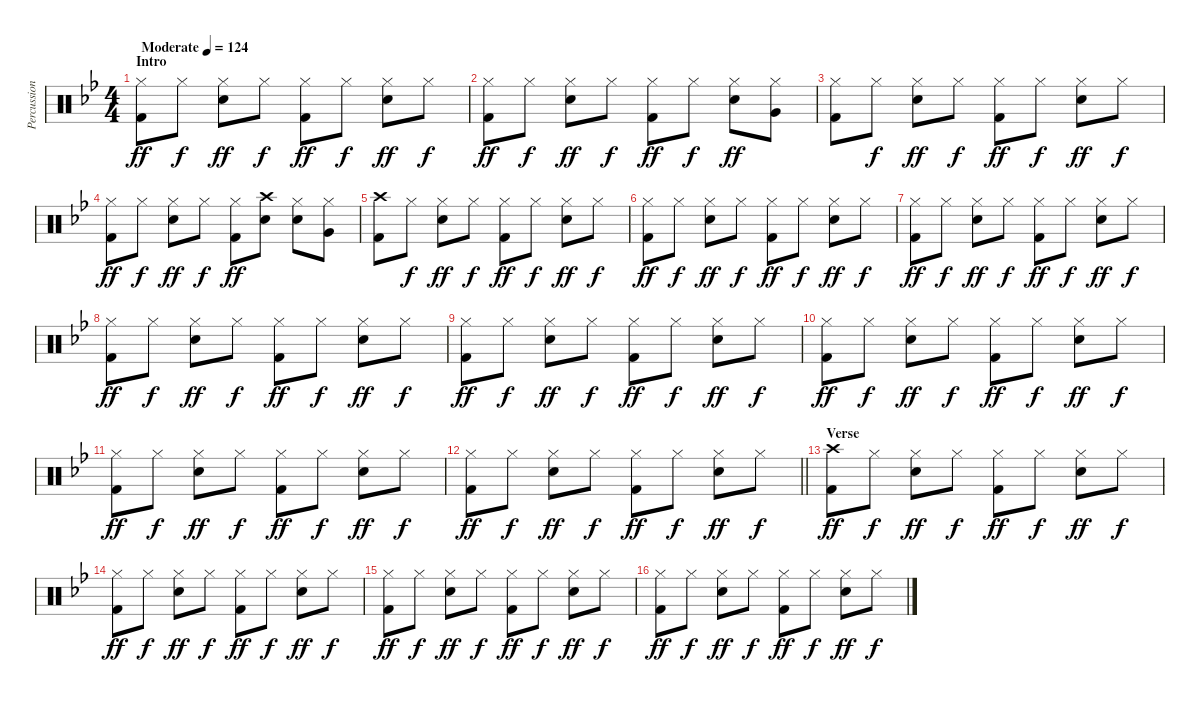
\track ("Percussion" "Percussion") {instrument percussion}
\staff {score}
\articulation defaults
\ts (4 4)
\section ("" "Intro")
\tempo (124 "Moderate")
\clef neutral
\ks gminor
("Hi-Hat (closed)" "Kick (hit) 2").8{dy ff} "Hi-Hat (closed)".8{dy f} ("Hi-Hat (closed)" "Electric Snare (hit)").8{dy ff} "Hi-Hat (closed)".8{dy f} ("Hi-Hat (closed)" "Kick (hit) 2").8{dy ff} "Hi-Hat (closed)".8{dy f} ("Hi-Hat (closed)" "Electric Snare (hit)").8{dy ff} "Hi-Hat (closed)".8{dy f} |
("Hi-Hat (closed)" "Kick (hit) 2").8{dy ff} "Hi-Hat (closed)".8{dy f} ("Hi-Hat (closed)" "Electric Snare (hit)").8{dy ff} "Hi-Hat (closed)".8{dy f} ("Hi-Hat (closed)" "Kick (hit) 2").8{dy ff} "Hi-Hat (closed)".8{dy f} ("Hi-Hat (closed)" "Electric Snare (hit)").8{dy ff} ("Hi-Hat (closed)" "Very Low Tom (hit)").8 |
("Hi-Hat (closed)" "Kick (hit) 2").8 "Hi-Hat (closed)".8{dy f} ("Hi-Hat (closed)" "Electric Snare (hit)").8{dy ff} "Hi-Hat (closed)".8{dy f} ("Hi-Hat (closed)" "Kick (hit) 2").8{dy ff} "Hi-Hat (closed)".8{dy f} ("Hi-Hat (closed)" "Electric Snare (hit)").8{dy ff} "Hi-Hat (closed)".8{dy f} |
("Hi-Hat (closed)" "Kick (hit) 2").8{dy ff} "Hi-Hat (closed)".8{dy f} ("Hi-Hat (closed)" "Electric Snare (hit)").8{dy ff} "Hi-Hat (closed)".8{dy f} ("Hi-Hat (closed)" "Kick (hit) 2").8{dy ff} ("Crash high (hit)" "Electric Snare (hit)").8 ("Hi-Hat (closed)" "Electric Snare (hit)").8 ("Hi-Hat (closed)" "Very Low Tom (hit)").8 |
("Crash high (hit)" "Kick (hit) 2").8 "Hi-Hat (closed)".8{dy f} ("Hi-Hat (closed)" "Electric Snare (hit)").8{dy ff} "Hi-Hat (closed)".8{dy f} ("Hi-Hat (closed)" "Kick (hit) 2").8{dy ff} "Hi-Hat (closed)".8{dy f} ("Hi-Hat (closed)" "Electric Snare (hit)").8{dy ff} "Hi-Hat (closed)".8{dy f} |
("Hi-Hat (closed)" "Kick (hit) 2").8{dy ff} "Hi-Hat (closed)".8{dy f} ("Hi-Hat (closed)" "Electric Snare (hit)").8{dy ff} "Hi-Hat (closed)".8{dy f} ("Hi-Hat (closed)" "Kick (hit) 2").8{dy ff} "Hi-Hat (closed)".8{dy f} ("Hi-Hat (closed)" "Electric Snare (hit)").8{dy ff} "Hi-Hat (closed)".8{dy f} |
("Hi-Hat (closed)" "Kick (hit) 2").8{dy ff} "Hi-Hat (closed)".8{dy f} ("Hi-Hat (closed)" "Electric Snare (hit)").8{dy ff} "Hi-Hat (closed)".8{dy f} ("Hi-Hat (closed)" "Kick (hit) 2").8{dy ff} "Hi-Hat (closed)".8{dy f} ("Hi-Hat (closed)" "Electric Snare (hit)").8{dy ff} "Hi-Hat (closed)".8{dy f} |
("Hi-Hat (closed)" "Kick (hit) 2").8{dy ff} "Hi-Hat (closed)".8{dy f} ("Hi-Hat (closed)" "Electric Snare (hit)").8{dy ff} "Hi-Hat (closed)".8{dy f} ("Hi-Hat (closed)" "Kick (hit) 2").8{dy ff} "Hi-Hat (closed)".8{dy f} ("Hi-Hat (closed)" "Electric Snare (hit)").8{dy ff} "Hi-Hat (closed)".8{dy f} |
("Hi-Hat (closed)" "Kick (hit) 2").8{dy ff} "Hi-Hat (closed)".8{dy f} ("Hi-Hat (closed)" "Electric Snare (hit)").8{dy ff} "Hi-Hat (closed)".8{dy f} ("Hi-Hat (closed)" "Kick (hit) 2").8{dy ff} "Hi-Hat (closed)".8{dy f} ("Hi-Hat (closed)" "Electric Snare (hit)").8{dy ff} "Hi-Hat (closed)".8{dy f} |
("Hi-Hat (closed)" "Kick (hit) 2").8{dy ff} "Hi-Hat (closed)".8{dy f} ("Hi-Hat (closed)" "Electric Snare (hit)").8{dy ff} "Hi-Hat (closed)".8{dy f} ("Hi-Hat (closed)" "Kick (hit) 2").8{dy ff} "Hi-Hat (closed)".8{dy f} ("Hi-Hat (closed)" "Electric Snare (hit)").8{dy ff} "Hi-Hat (closed)".8{dy f} |
("Hi-Hat (closed)" "Kick (hit) 2").8{dy ff} "Hi-Hat (closed)".8{dy f} ("Hi-Hat (closed)" "Electric Snare (hit)").8{dy ff} "Hi-Hat (closed)".8{dy f} ("Hi-Hat (closed)" "Kick (hit) 2").8{dy ff} "Hi-Hat (closed)".8{dy f} ("Hi-Hat (closed)" "Electric Snare (hit)").8{dy ff} "Hi-Hat (closed)".8{dy f} |
\barLineRight lightlight
("Hi-Hat (closed)" "Kick (hit) 2").8{dy ff} "Hi-Hat (closed)".8{dy f} ("Hi-Hat (closed)" "Electric Snare (hit)").8{dy ff} "Hi-Hat (closed)".8{dy f} ("Hi-Hat (closed)" "Kick (hit) 2").8{dy ff} "Hi-Hat (closed)".8{dy f} ("Hi-Hat (closed)" "Electric Snare (hit)").8{dy ff} "Hi-Hat (closed)".8{dy f} |
\section ("" "Verse")
("Crash high (hit)" "Kick (hit) 2").8{dy ff} "Hi-Hat (closed)".8{dy f} ("Hi-Hat (closed)" "Electric Snare (hit)").8{dy ff} "Hi-Hat (closed)".8{dy f} ("Hi-Hat (closed)" "Kick (hit) 2").8{dy ff} "Hi-Hat (closed)".8{dy f} ("Hi-Hat (closed)" "Electric Snare (hit)").8{dy ff} "Hi-Hat (closed)".8{dy f} |
("Hi-Hat (closed)" "Kick (hit) 2").8{dy ff} "Hi-Hat (closed)".8{dy f} ("Hi-Hat (closed)" "Electric Snare (hit)").8{dy ff} "Hi-Hat (closed)".8{dy f} ("Hi-Hat (closed)" "Kick (hit) 2").8{dy ff} "Hi-Hat (closed)".8{dy f} ("Hi-Hat (closed)" "Electric Snare (hit)").8{dy ff} "Hi-Hat (closed)".8{dy f} |
("Hi-Hat (closed)" "Kick (hit) 2").8{dy ff} "Hi-Hat (closed)".8{dy f} ("Hi-Hat (closed)" "Electric Snare (hit)").8{dy ff} "Hi-Hat (closed)".8{dy f} ("Hi-Hat (closed)" "Kick (hit) 2").8{dy ff} "Hi-Hat (closed)".8{dy f} ("Hi-Hat (closed)" "Electric Snare (hit)").8{dy ff} "Hi-Hat (closed)".8{dy f} |
("Hi-Hat (closed)" "Kick (hit) 2").8{dy ff} "Hi-Hat (closed)".8{dy f} ("Hi-Hat (closed)" "Electric Snare (hit)").8{dy ff} "Hi-Hat (closed)".8{dy f} ("Hi-Hat (closed)" "Kick (hit) 2").8{dy ff} "Hi-Hat (closed)".8{dy f} ("Hi-Hat (closed)" "Electric Snare (hit)").8{dy ff} "Hi-Hat (closed)".8{dy f}
